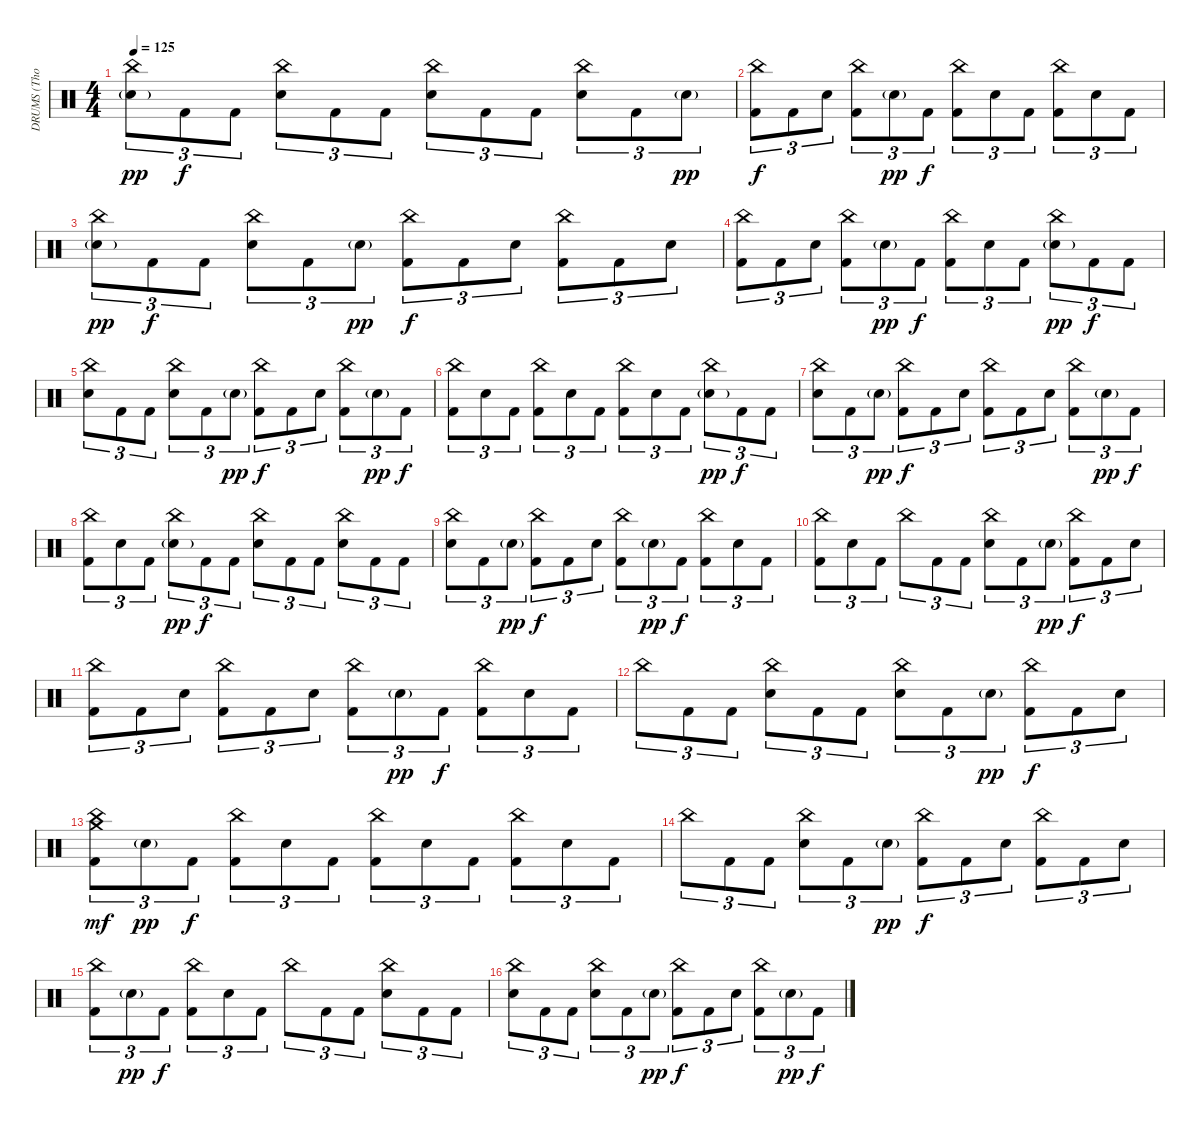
\track ("DRUMS (Thomas Haake)" "DRUMS (Tho") {instrument percussion}
\staff {score}
\articulation defaults
\ts (4 4)
\tempo 125
\clef neutral
\ks c
("China (hit)" "Electric Snare (hit)"{g}).8{tu (3 2) dy pp} "Kick (hit) 2".8{tu (3 2) dy f} "Kick (hit) 2".8{tu (3 2)} ("China (hit)" "Electric Snare (hit)").8{tu (3 2)} "Kick (hit) 2".8{tu (3 2)} "Kick (hit) 2".8{tu (3 2)} ("China (hit)" "Electric Snare (hit)").8{tu (3 2)} "Kick (hit) 2".8{tu (3 2)} "Kick (hit) 2".8{tu (3 2)} ("China (hit)" "Electric Snare (hit)").8{tu (3 2)} "Kick (hit) 2".8{tu (3 2)} "Electric Snare (hit)"{g}.8{tu (3 2) dy pp} |
("China (hit)" "Kick (hit) 2").8{tu (3 2) dy f} "Kick (hit) 2".8{tu (3 2)} "Electric Snare (hit)".8{tu (3 2)} ("China (hit)" "Kick (hit) 2").8{tu (3 2)} "Electric Snare (hit)"{g}.8{tu (3 2) dy pp} "Kick (hit) 2".8{tu (3 2) dy f} ("China (hit)" "Kick (hit) 2").8{tu (3 2)} "Electric Snare (hit)".8{tu (3 2)} "Kick (hit) 2".8{tu (3 2)} ("China (hit)" "Kick (hit) 2").8{tu (3 2)} "Electric Snare (hit)".8{tu (3 2)} "Kick (hit) 2".8{tu (3 2)} |
("China (hit)" "Electric Snare (hit)"{g}).8{tu (3 2) dy pp} "Kick (hit) 2".8{tu (3 2) dy f} "Kick (hit) 2".8{tu (3 2)} ("China (hit)" "Electric Snare (hit)").8{tu (3 2)} "Kick (hit) 2".8{tu (3 2)} "Electric Snare (hit)"{g}.8{tu (3 2) dy pp} ("China (hit)" "Kick (hit) 2").8{tu (3 2) dy f} "Kick (hit) 2".8{tu (3 2)} "Electric Snare (hit)".8{tu (3 2)} ("China (hit)" "Kick (hit) 2").8{tu (3 2)} "Kick (hit) 2".8{tu (3 2)} "Electric Snare (hit)".8{tu (3 2)} |
("China (hit)" "Kick (hit) 2").8{tu (3 2)} "Kick (hit) 2".8{tu (3 2)} "Electric Snare (hit)".8{tu (3 2)} ("China (hit)" "Kick (hit) 2").8{tu (3 2)} "Electric Snare (hit)"{g}.8{tu (3 2) dy pp} "Kick (hit) 2".8{tu (3 2) dy f} ("China (hit)" "Kick (hit) 2").8{tu (3 2)} "Electric Snare (hit)".8{tu (3 2)} "Kick (hit) 2".8{tu (3 2)} ("China (hit)" "Electric Snare (hit)"{g}).8{tu (3 2) dy pp} "Kick (hit) 2".8{tu (3 2) dy f} "Kick (hit) 2".8{tu (3 2)} |
("China (hit)" "Electric Snare (hit)").8{tu (3 2)} "Kick (hit) 2".8{tu (3 2)} "Kick (hit) 2".8{tu (3 2)} ("China (hit)" "Electric Snare (hit)").8{tu (3 2)} "Kick (hit) 2".8{tu (3 2)} "Electric Snare (hit)"{g}.8{tu (3 2) dy pp} ("China (hit)" "Kick (hit) 2").8{tu (3 2) dy f} "Kick (hit) 2".8{tu (3 2)} "Electric Snare (hit)".8{tu (3 2)} ("China (hit)" "Kick (hit) 2").8{tu (3 2)} "Electric Snare (hit)"{g}.8{tu (3 2) dy pp} "Kick (hit) 2".8{tu (3 2) dy f} |
("China (hit)" "Kick (hit) 2").8{tu (3 2)} "Electric Snare (hit)".8{tu (3 2)} "Kick (hit) 2".8{tu (3 2)} ("China (hit)" "Kick (hit) 2").8{tu (3 2)} "Electric Snare (hit)".8{tu (3 2)} "Kick (hit) 2".8{tu (3 2)} ("China (hit)" "Kick (hit) 2").8{tu (3 2)} "Electric Snare (hit)".8{tu (3 2)} "Kick (hit) 2".8{tu (3 2)} ("China (hit)" "Electric Snare (hit)"{g}).8{tu (3 2) dy pp} "Kick (hit) 2".8{tu (3 2) dy f} "Kick (hit) 2".8{tu (3 2)} |
("China (hit)" "Electric Snare (hit)").8{tu (3 2)} "Kick (hit) 2".8{tu (3 2)} "Electric Snare (hit)"{g}.8{tu (3 2) dy pp} ("China (hit)" "Kick (hit) 2").8{tu (3 2) dy f} "Kick (hit) 2".8{tu (3 2)} "Electric Snare (hit)".8{tu (3 2)} ("China (hit)" "Kick (hit) 2").8{tu (3 2)} "Kick (hit) 2".8{tu (3 2)} "Electric Snare (hit)".8{tu (3 2)} ("China (hit)" "Kick (hit) 2").8{tu (3 2)} "Electric Snare (hit)"{g}.8{tu (3 2) dy pp} "Kick (hit) 2".8{tu (3 2) dy f} |
("China (hit)" "Kick (hit) 2").8{tu (3 2)} "Electric Snare (hit)".8{tu (3 2)} "Kick (hit) 2".8{tu (3 2)} ("China (hit)" "Electric Snare (hit)"{g}).8{tu (3 2) dy pp} "Kick (hit) 2".8{tu (3 2) dy f} "Kick (hit) 2".8{tu (3 2)} ("China (hit)" "Electric Snare (hit)").8{tu (3 2)} "Kick (hit) 2".8{tu (3 2)} "Kick (hit) 2".8{tu (3 2)} ("China (hit)" "Electric Snare (hit)").8{tu (3 2)} "Kick (hit) 2".8{tu (3 2)} "Kick (hit) 2".8{tu (3 2)} |
("China (hit)" "Electric Snare (hit)").8{tu (3 2)} "Kick (hit) 2".8{tu (3 2)} "Electric Snare (hit)"{g}.8{tu (3 2) dy pp} ("China (hit)" "Kick (hit) 2").8{tu (3 2) dy f} "Kick (hit) 2".8{tu (3 2)} "Electric Snare (hit)".8{tu (3 2)} ("China (hit)" "Kick (hit) 2").8{tu (3 2)} "Electric Snare (hit)"{g}.8{tu (3 2) dy pp} "Kick (hit) 2".8{tu (3 2) dy f} ("China (hit)" "Kick (hit) 2").8{tu (3 2)} "Electric Snare (hit)".8{tu (3 2)} "Kick (hit) 2".8{tu (3 2)} |
("China (hit)" "Kick (hit) 2").8{tu (3 2)} "Electric Snare (hit)".8{tu (3 2)} "Kick (hit) 2".8{tu (3 2)} "China (hit)".8{tu (3 2)} "Kick (hit) 2".8{tu (3 2)} "Kick (hit) 2".8{tu (3 2)} ("China (hit)" "Electric Snare (hit)").8{tu (3 2)} "Kick (hit) 2".8{tu (3 2)} "Electric Snare (hit)"{g}.8{tu (3 2) dy pp} ("China (hit)" "Kick (hit) 2").8{tu (3 2) dy f} "Kick (hit) 2".8{tu (3 2)} "Electric Snare (hit)".8{tu (3 2)} |
("China (hit)" "Kick (hit) 2").8{tu (3 2)} "Kick (hit) 2".8{tu (3 2)} "Electric Snare (hit)".8{tu (3 2)} ("China (hit)" "Kick (hit) 2").8{tu (3 2)} "Kick (hit) 2".8{tu (3 2)} "Electric Snare (hit)".8{tu (3 2)} ("China (hit)" "Kick (hit) 2").8{tu (3 2)} "Electric Snare (hit)"{g}.8{tu (3 2) dy pp} "Kick (hit) 2".8{tu (3 2) dy f} ("China (hit)" "Kick (hit) 2").8{tu (3 2)} "Electric Snare (hit)".8{tu (3 2)} "Kick (hit) 2".8{tu (3 2)} |
"China (hit)".8{tu (3 2)} "Kick (hit) 2".8{tu (3 2)} "Kick (hit) 2".8{tu (3 2)} ("China (hit)" "Electric Snare (hit)").8{tu (3 2)} "Kick (hit) 2".8{tu (3 2)} "Kick (hit) 2".8{tu (3 2)} ("China (hit)" "Electric Snare (hit)").8{tu (3 2)} "Kick (hit) 2".8{tu (3 2)} "Electric Snare (hit)"{g}.8{tu (3 2) dy pp} ("China (hit)" "Kick (hit) 2").8{tu (3 2) dy f} "Kick (hit) 2".8{tu (3 2)} "Electric Snare (hit)".8{tu (3 2)} |
("China (hit)" "Crash medium (hit)" "Kick (hit) 2").8{tu (3 2) dy mf} "Electric Snare (hit)"{g}.8{tu (3 2) dy pp} "Kick (hit) 2".8{tu (3 2) dy f} ("China (hit)" "Kick (hit) 2").8{tu (3 2)} "Electric Snare (hit)".8{tu (3 2)} "Kick (hit) 2".8{tu (3 2)} ("China (hit)" "Kick (hit) 2").8{tu (3 2)} "Electric Snare (hit)".8{tu (3 2)} "Kick (hit) 2".8{tu (3 2)} ("China (hit)" "Kick (hit) 2").8{tu (3 2)} "Electric Snare (hit)".8{tu (3 2)} "Kick (hit) 2".8{tu (3 2)} |
"China (hit)".8{tu (3 2)} "Kick (hit) 2".8{tu (3 2)} "Kick (hit) 2".8{tu (3 2)} ("China (hit)" "Electric Snare (hit)").8{tu (3 2)} "Kick (hit) 2".8{tu (3 2)} "Electric Snare (hit)"{g}.8{tu (3 2) dy pp} ("China (hit)" "Kick (hit) 2").8{tu (3 2) dy f} "Kick (hit) 2".8{tu (3 2)} "Electric Snare (hit)".8{tu (3 2)} ("China (hit)" "Kick (hit) 2").8{tu (3 2)} "Kick (hit) 2".8{tu (3 2)} "Electric Snare (hit)".8{tu (3 2)} |
("China (hit)" "Kick (hit) 2").8{tu (3 2)} "Electric Snare (hit)"{g}.8{tu (3 2) dy pp} "Kick (hit) 2".8{tu (3 2) dy f} ("China (hit)" "Kick (hit) 2").8{tu (3 2)} "Electric Snare (hit)".8{tu (3 2)} "Kick (hit) 2".8{tu (3 2)} "China (hit)".8{tu (3 2)} "Kick (hit) 2".8{tu (3 2)} "Kick (hit) 2".8{tu (3 2)} ("China (hit)" "Electric Snare (hit)").8{tu (3 2)} "Kick (hit) 2".8{tu (3 2)} "Kick (hit) 2".8{tu (3 2)} |
("China (hit)" "Electric Snare (hit)").8{tu (3 2)} "Kick (hit) 2".8{tu (3 2)} "Kick (hit) 2".8{tu (3 2)} ("China (hit)" "Electric Snare (hit)").8{tu (3 2)} "Kick (hit) 2".8{tu (3 2)} "Electric Snare (hit)"{g}.8{tu (3 2) dy pp} ("China (hit)" "Kick (hit) 2").8{tu (3 2) dy f} "Kick (hit) 2".8{tu (3 2)} "Electric Snare (hit)".8{tu (3 2)} ("China (hit)" "Kick (hit) 2").8{tu (3 2)} "Electric Snare (hit)"{g}.8{tu (3 2) dy pp} "Kick (hit) 2".8{tu (3 2) dy f}
